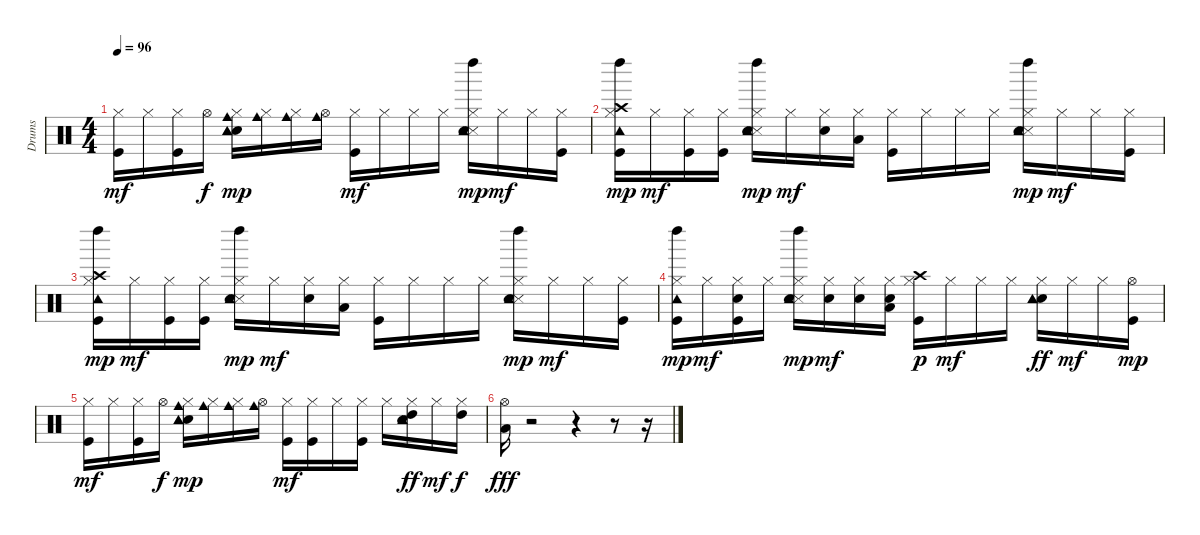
\track ("Drums" "Drums") {instrument percussion}
\staff {score}
\articulation defaults
\ts (4 4)
\tempo 96
\clef neutral
\ks c
("Kick (hit)" "Hi-Hat (closed)").16{dy mf} "Hi-Hat (closed)".16 ("Kick (hit)" "Hi-Hat (closed)").16 "Hi-Hat (open)".16{dy f} ("Snare (hit) 2" "Hi-Hat (closed)" "Tambourine (hit)" "Tambourine (hit)" "Cowbell medium (hit)").16{dy mp} ("Hi-Hat (closed)" "Cowbell medium (hit)").16 ("Hi-Hat (closed)" "Cowbell medium (hit)").16 ("Hi-Hat (open)" "Cowbell medium (hit)").16 ("Kick (hit)" "Hi-Hat (closed)").16{dy mf} "Hi-Hat (closed)".16 "Hi-Hat (closed)".16 "Hi-Hat (closed)".16 ("Snare (side stick) 3" "Snare (hit) 2" "Hi-Hat (closed)" "Tambourine (hit)" "Left Maraca (hit)").16{dy mp} "Hi-Hat (closed)".16{dy mf} "Hi-Hat (closed)".16 ("Kick (hit)" "Hi-Hat (closed)").16 |
("Kick (hit)" "Hi-Hat (closed)" "Crash high (hit)" "Tambourine (hit)" "Left Maraca (hit)").16{dy mp} "Hi-Hat (closed)".16{dy mf} ("Kick (hit)" "Hi-Hat (closed)").16 ("Kick (hit)" "Hi-Hat (closed)").16 ("Snare (side stick) 3" "Snare (hit) 2" "Hi-Hat (closed)" "Tambourine (hit)" "Left Maraca (hit)").16{dy mp} "Hi-Hat (closed)".16{dy mf} ("Snare (hit) 2" "Hi-Hat (closed)").16 ("Low Floor Tom (hit)" "Hi-Hat (closed)").16 ("Kick (hit)" "Hi-Hat (closed)").16 "Hi-Hat (closed)".16 "Hi-Hat (closed)".16 "Hi-Hat (closed)".16 ("Snare (side stick) 3" "Snare (hit) 2" "Hi-Hat (closed)" "Tambourine (hit)" "Left Maraca (hit)").16{dy mp} "Hi-Hat (closed)".16{dy mf} "Hi-Hat (closed)".16 ("Kick (hit)" "Hi-Hat (closed)").16 |
("Kick (hit)" "Hi-Hat (closed)" "Crash high (hit)" "Tambourine (hit)" "Left Maraca (hit)").16{dy mp} "Hi-Hat (closed)".16{dy mf} ("Kick (hit)" "Hi-Hat (closed)").16 ("Kick (hit)" "Hi-Hat (closed)").16 ("Snare (side stick) 3" "Snare (hit) 2" "Hi-Hat (closed)" "Tambourine (hit)" "Left Maraca (hit)").16{dy mp} "Hi-Hat (closed)".16{dy mf} ("Snare (hit) 2" "Hi-Hat (closed)").16 ("Low Floor Tom (hit)" "Hi-Hat (closed)").16 ("Kick (hit)" "Hi-Hat (closed)").16 "Hi-Hat (closed)".16 "Hi-Hat (closed)".16 "Hi-Hat (closed)".16 ("Snare (side stick) 3" "Snare (hit) 2" "Hi-Hat (closed)" "Tambourine (hit)" "Left Maraca (hit)").16{dy mp} "Hi-Hat (closed)".16{dy mf} "Hi-Hat (closed)".16 ("Kick (hit)" "Hi-Hat (closed)").16 |
("Kick (hit)" "Hi-Hat (closed)" "Tambourine (hit)" "Left Maraca (hit)").16{dy mp} "Hi-Hat (closed)".16{dy mf} ("Kick (hit)" "Snare (hit) 2" "Hi-Hat (closed)").16 "Hi-Hat (closed)".16 ("Snare (side stick) 3" "Snare (hit) 2" "Hi-Hat (closed)" "Tambourine (hit)" "Left Maraca (hit)").16{dy mp} ("Snare (hit) 2" "Hi-Hat (closed)").16{dy mf} ("Snare (hit) 2" "Hi-Hat (closed)").16 ("Snare (hit) 2" "Low Floor Tom (hit)" "Hi-Hat (closed)").16 ("Kick (hit)" "Hi-Hat (closed)" "Crash high (hit)").16{dy p} "Hi-Hat (closed)".16{dy mf} "Hi-Hat (closed)".16 "Hi-Hat (closed)".16 ("Snare (hit) 2" "Hi-Hat (closed)" "Tambourine (hit)" "Tambourine (hit)").16{dy ff} "Hi-Hat (closed)".16{dy mf} "Hi-Hat (closed)".16 ("Kick (hit)" "Hi-Hat (open)").16{dy mp} |
("Kick (hit)" "Hi-Hat (closed)").16{dy mf} "Hi-Hat (closed)".16 ("Kick (hit)" "Hi-Hat (closed)").16 "Hi-Hat (open)".16{dy f} ("Snare (hit) 2" "Hi-Hat (closed)" "Tambourine (hit)" "Tambourine (hit)" "Cowbell medium (hit)").16{dy mp} ("Hi-Hat (closed)" "Cowbell medium (hit)").16 ("Hi-Hat (closed)" "Cowbell medium (hit)").16 ("Hi-Hat (open)" "Cowbell medium (hit)").16 ("Kick (hit)" "Hi-Hat (closed)").16{dy mf} ("Kick (hit)" "Hi-Hat (closed)").16 "Hi-Hat (closed)".16 ("Kick (hit)" "Hi-Hat (closed)").16 "Hi-Hat (closed)".16 ("Snare (hit) 2" "Hi-Hat (closed)" "High Tom (hit)" "Tambourine (hit)" "Tambourine (hit)").16{dy ff} "Hi-Hat (closed)".16{dy mf} ("Hi-Hat (closed)" "High Tom (hit)").16{dy f} |
("Low Tom (hit)" "Hi-Hat (open)").16{dy fff} r.2 r.4 r.8 r.16
